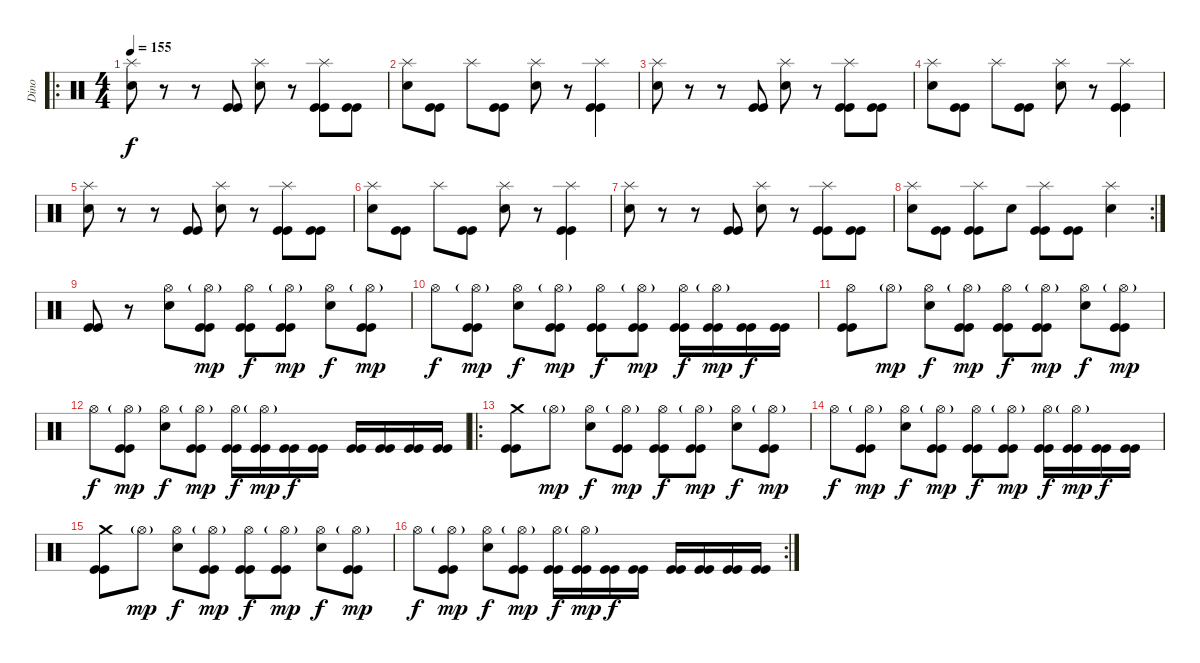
\track ("Dino" "Dino") {instrument percussion}
\staff {score}
\articulation defaults
\ro
\ts (4 4)
\tempo 155
\clef neutral
\ks c
("Splash (hit)" "Electric Snare (hit)").8{dy f} r.8 r.8 ("Kick (hit)" "Kick (hit)").8 ("Splash (hit)" "Electric Snare (hit)").8 r.8 ("Splash (hit)" "Kick (hit)" "Kick (hit)").8 ("Kick (hit)" "Kick (hit)").8 |
("Splash (hit)" "Electric Snare (hit)").8 ("Kick (hit)" "Kick (hit)").8 "Splash (hit)".8 ("Kick (hit)" "Kick (hit)").8 ("Splash (hit)" "Electric Snare (hit)").8 r.8 ("Splash (hit)" "Kick (hit)" "Kick (hit)").4 |
("Splash (hit)" "Electric Snare (hit)").8 r.8 r.8 ("Kick (hit)" "Kick (hit)").8 ("Splash (hit)" "Electric Snare (hit)").8 r.8 ("Splash (hit)" "Kick (hit)" "Kick (hit)").8 ("Kick (hit)" "Kick (hit)").8 |
("Splash (hit)" "Electric Snare (hit)").8 ("Kick (hit)" "Kick (hit)").8 "Splash (hit)".8 ("Kick (hit)" "Kick (hit)").8 ("Splash (hit)" "Electric Snare (hit)").8 r.8 ("Splash (hit)" "Kick (hit)" "Kick (hit)").4 |
("Splash (hit)" "Electric Snare (hit)").8 r.8 r.8 ("Kick (hit)" "Kick (hit)").8 ("Splash (hit)" "Electric Snare (hit)").8 r.8 ("Splash (hit)" "Kick (hit)" "Kick (hit)").8 ("Kick (hit)" "Kick (hit)").8 |
("Splash (hit)" "Electric Snare (hit)").8 ("Kick (hit)" "Kick (hit)").8 "Splash (hit)".8 ("Kick (hit)" "Kick (hit)").8 ("Splash (hit)" "Electric Snare (hit)").8 r.8 ("Splash (hit)" "Kick (hit)" "Kick (hit)").4 |
("Splash (hit)" "Electric Snare (hit)").8 r.8 r.8 ("Kick (hit)" "Kick (hit)").8 ("Splash (hit)" "Electric Snare (hit)").8 r.8 ("Splash (hit)" "Kick (hit)" "Kick (hit)").8 ("Kick (hit)" "Kick (hit)").8 |
\rc 2
("Splash (hit)" "Electric Snare (hit)").8 ("Kick (hit)" "Kick (hit)").8 ("Splash (hit)" "Kick (hit)" "Kick (hit)").8 "Electric Snare (hit)".8 ("Splash (hit)" "Kick (hit)" "Kick (hit)").8 ("Kick (hit)" "Kick (hit)").8 ("Splash (hit)" "Electric Snare (hit)").4 |
("Kick (hit)" "Kick (hit)").8 r.8 ("Hi-Hat (open)" "Electric Snare (hit)").8 ("Hi-Hat (open)"{g} "Kick (hit)" "Kick (hit)").8{dy mp} ("Hi-Hat (open)" "Kick (hit)" "Kick (hit)").8{dy f} ("Hi-Hat (open)"{g} "Kick (hit)" "Kick (hit)").8{dy mp} ("Hi-Hat (open)" "Electric Snare (hit)").8{dy f} ("Hi-Hat (open)"{g} "Kick (hit)" "Kick (hit)").8{dy mp} |
"Hi-Hat (open)".8{dy f} ("Hi-Hat (open)"{g} "Kick (hit)" "Kick (hit)").8{dy mp} ("Hi-Hat (open)" "Electric Snare (hit)").8{dy f} ("Hi-Hat (open)"{g} "Kick (hit)" "Kick (hit)").8{dy mp} ("Hi-Hat (open)" "Kick (hit)" "Kick (hit)").8{dy f} ("Hi-Hat (open)"{g} "Kick (hit)" "Kick (hit)").8{dy mp} ("Hi-Hat (open)" "Kick (hit)" "Kick (hit)").16{dy f} ("Hi-Hat (open)"{g} "Kick (hit)" "Kick (hit)").16{dy mp} ("Kick (hit)" "Kick (hit)").16{dy f} ("Kick (hit)" "Kick (hit)").16 |
("Hi-Hat (open)" "Kick (hit)" "Kick (hit)").8 "Hi-Hat (open)"{g}.8{dy mp} ("Hi-Hat (open)" "Electric Snare (hit)").8{dy f} ("Hi-Hat (open)"{g} "Kick (hit)" "Kick (hit)").8{dy mp} ("Hi-Hat (open)" "Kick (hit)" "Kick (hit)").8{dy f} ("Hi-Hat (open)"{g} "Kick (hit)" "Kick (hit)").8{dy mp} ("Hi-Hat (open)" "Electric Snare (hit)").8{dy f} ("Hi-Hat (open)"{g} "Kick (hit)" "Kick (hit)").8{dy mp} |
"Hi-Hat (open)".8{dy f} ("Hi-Hat (open)"{g} "Kick (hit)" "Kick (hit)").8{dy mp} ("Hi-Hat (open)" "Electric Snare (hit)").8{dy f} ("Hi-Hat (open)"{g} "Kick (hit)" "Kick (hit)").8{dy mp} ("Hi-Hat (open)" "Kick (hit)" "Kick (hit)").16{dy f} ("Hi-Hat (open)"{g} "Kick (hit)" "Kick (hit)").16{dy mp} ("Kick (hit)" "Kick (hit)").16{dy f} ("Kick (hit)" "Kick (hit)").16 ("Kick (hit)" "Kick (hit)").16 ("Kick (hit)" "Kick (hit)").16 ("Kick (hit)" "Kick (hit)").16 ("Kick (hit)" "Kick (hit)").16 |
\ro
("Crash medium (hit)" "Kick (hit)" "Kick (hit)").8 "Hi-Hat (open)"{g}.8{dy mp} ("Hi-Hat (open)" "Electric Snare (hit)").8{dy f} ("Hi-Hat (open)"{g} "Kick (hit)" "Kick (hit)").8{dy mp} ("Hi-Hat (open)" "Kick (hit)" "Kick (hit)").8{dy f} ("Hi-Hat (open)"{g} "Kick (hit)" "Kick (hit)").8{dy mp} ("Hi-Hat (open)" "Electric Snare (hit)").8{dy f} ("Hi-Hat (open)"{g} "Kick (hit)" "Kick (hit)").8{dy mp} |
"Hi-Hat (open)".8{dy f} ("Hi-Hat (open)"{g} "Kick (hit)" "Kick (hit)").8{dy mp} ("Hi-Hat (open)" "Electric Snare (hit)").8{dy f} ("Hi-Hat (open)"{g} "Kick (hit)" "Kick (hit)").8{dy mp} ("Hi-Hat (open)" "Kick (hit)" "Kick (hit)").8{dy f} ("Hi-Hat (open)"{g} "Kick (hit)" "Kick (hit)").8{dy mp} ("Hi-Hat (open)" "Kick (hit)" "Kick (hit)").16{dy f} ("Hi-Hat (open)"{g} "Kick (hit)" "Kick (hit)").16{dy mp} ("Kick (hit)" "Kick (hit)").16{dy f} ("Kick (hit)" "Kick (hit)").16 |
("Crash medium (hit)" "Kick (hit)" "Kick (hit)").8 "Hi-Hat (open)"{g}.8{dy mp} ("Hi-Hat (open)" "Electric Snare (hit)").8{dy f} ("Hi-Hat (open)"{g} "Kick (hit)" "Kick (hit)").8{dy mp} ("Hi-Hat (open)" "Kick (hit)" "Kick (hit)").8{dy f} ("Hi-Hat (open)"{g} "Kick (hit)" "Kick (hit)").8{dy mp} ("Hi-Hat (open)" "Electric Snare (hit)").8{dy f} ("Hi-Hat (open)"{g} "Kick (hit)" "Kick (hit)").8{dy mp} |
\rc 2 "Hi-Hat (open)".8{dy f}
("Hi-Hat (open)"{g} "Kick (hit)" "Kick (hit)").8{dy mp} ("Hi-Hat (open)" "Electric Snare (hit)").8{dy f} ("Hi-Hat (open)"{g} "Kick (hit)" "Kick (hit)").8{dy mp} ("Hi-Hat (open)" "Kick (hit)" "Kick (hit)").16{dy f} ("Hi-Hat (open)"{g} "Kick (hit)" "Kick (hit)").16{dy mp} ("Kick (hit)" "Kick (hit)").16{dy f} ("Kick (hit)" "Kick (hit)").16 ("Kick (hit)" "Kick (hit)").16 ("Kick (hit)" "Kick (hit)").16 ("Kick (hit)" "Kick (hit)").16 ("Kick (hit)" "Kick (hit)").16
